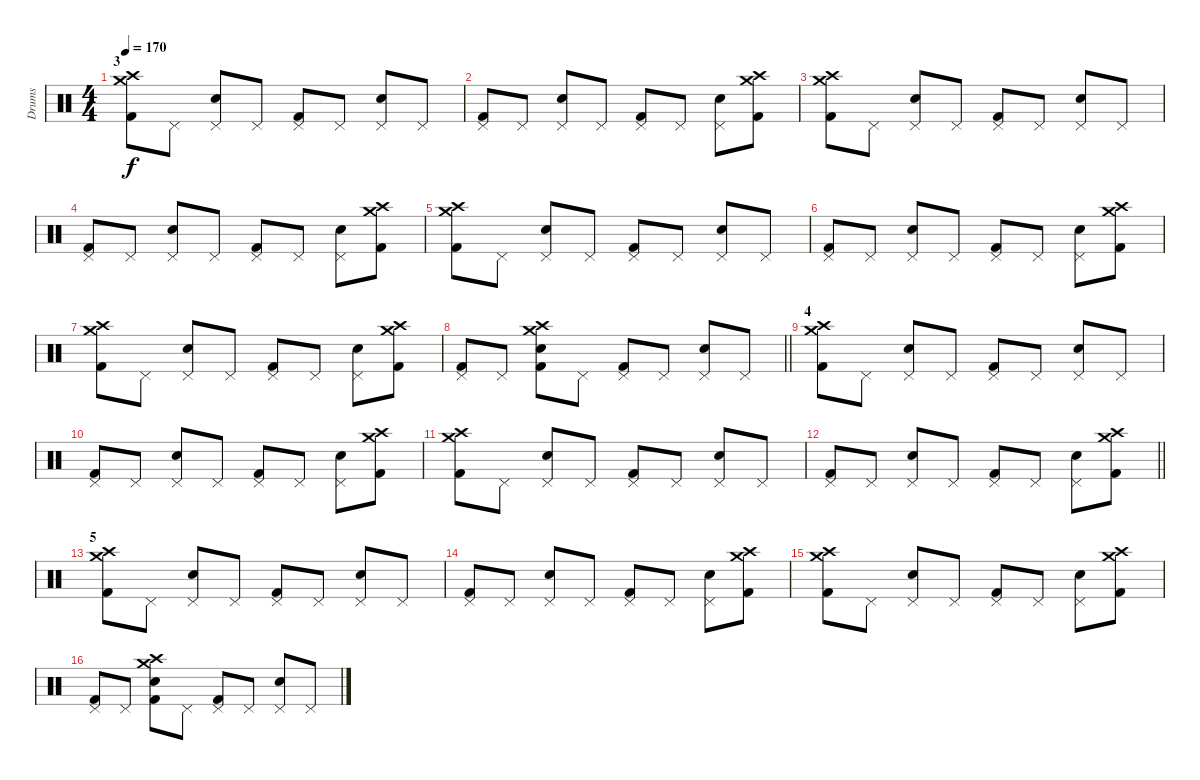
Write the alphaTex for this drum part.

\track ("Drums" "Drums") {instrument percussion}
\staff {score}
\articulation defaults
\ts (4 4)
\section ("" "3")
\tempo 170
\clef neutral
\ks c
("Crash medium (hit)" "Crash high (hit)" "Kick (hit) 2").8{dy f} "Pedal Hi-Hat (hit)".8 ("Pedal Hi-Hat (hit)" "Snare (hit) 2").8 "Pedal Hi-Hat (hit)".8 ("Pedal Hi-Hat (hit)" "Kick (hit) 2").8 "Pedal Hi-Hat (hit)".8 ("Pedal Hi-Hat (hit)" "Snare (hit) 2").8 "Pedal Hi-Hat (hit)".8 |
("Pedal Hi-Hat (hit)" "Kick (hit) 2").8 "Pedal Hi-Hat (hit)".8 ("Pedal Hi-Hat (hit)" "Snare (hit) 2").8 "Pedal Hi-Hat (hit)".8 ("Pedal Hi-Hat (hit)" "Kick (hit) 2").8 "Pedal Hi-Hat (hit)".8 ("Pedal Hi-Hat (hit)" "Snare (hit) 2").8 ("Crash medium (hit)" "Crash high (hit)" "Kick (hit) 2").8 |
("Crash medium (hit)" "Crash high (hit)" "Kick (hit) 2").8 "Pedal Hi-Hat (hit)".8 ("Pedal Hi-Hat (hit)" "Snare (hit) 2").8 "Pedal Hi-Hat (hit)".8 ("Pedal Hi-Hat (hit)" "Kick (hit) 2").8 "Pedal Hi-Hat (hit)".8 ("Pedal Hi-Hat (hit)" "Snare (hit) 2").8 "Pedal Hi-Hat (hit)".8 |
("Pedal Hi-Hat (hit)" "Kick (hit) 2").8 "Pedal Hi-Hat (hit)".8 ("Pedal Hi-Hat (hit)" "Snare (hit) 2").8 "Pedal Hi-Hat (hit)".8 ("Pedal Hi-Hat (hit)" "Kick (hit) 2").8 "Pedal Hi-Hat (hit)".8 ("Pedal Hi-Hat (hit)" "Snare (hit) 2").8 ("Crash medium (hit)" "Crash high (hit)" "Kick (hit) 2").8 |
("Crash medium (hit)" "Crash high (hit)" "Kick (hit) 2").8 "Pedal Hi-Hat (hit)".8 ("Pedal Hi-Hat (hit)" "Snare (hit) 2").8 "Pedal Hi-Hat (hit)".8 ("Pedal Hi-Hat (hit)" "Kick (hit) 2").8 "Pedal Hi-Hat (hit)".8 ("Pedal Hi-Hat (hit)" "Snare (hit) 2").8 "Pedal Hi-Hat (hit)".8 |
("Pedal Hi-Hat (hit)" "Kick (hit) 2").8 "Pedal Hi-Hat (hit)".8 ("Pedal Hi-Hat (hit)" "Snare (hit) 2").8 "Pedal Hi-Hat (hit)".8 ("Pedal Hi-Hat (hit)" "Kick (hit) 2").8 "Pedal Hi-Hat (hit)".8 ("Pedal Hi-Hat (hit)" "Snare (hit) 2").8 ("Crash medium (hit)" "Crash high (hit)" "Kick (hit) 2").8 |
("Crash medium (hit)" "Crash high (hit)" "Kick (hit) 2").8 "Pedal Hi-Hat (hit)".8 ("Pedal Hi-Hat (hit)" "Snare (hit) 2").8 "Pedal Hi-Hat (hit)".8 ("Pedal Hi-Hat (hit)" "Kick (hit) 2").8 "Pedal Hi-Hat (hit)".8 ("Pedal Hi-Hat (hit)" "Snare (hit) 2").8 ("Crash medium (hit)" "Crash high (hit)" "Kick (hit) 2").8 |
\barLineRight lightlight
("Pedal Hi-Hat (hit)" "Kick (hit) 2").8 "Pedal Hi-Hat (hit)".8 ("Crash medium (hit)" "Crash high (hit)" "Snare (hit) 2" "Kick (hit) 2").8 "Pedal Hi-Hat (hit)".8 ("Pedal Hi-Hat (hit)" "Kick (hit) 2").8 "Pedal Hi-Hat (hit)".8 ("Pedal Hi-Hat (hit)" "Snare (hit) 2").8 "Pedal Hi-Hat (hit)".8 |
\section ("" "4")
("Crash medium (hit)" "Crash high (hit)" "Kick (hit) 2").8 "Pedal Hi-Hat (hit)".8 ("Pedal Hi-Hat (hit)" "Snare (hit) 2").8 "Pedal Hi-Hat (hit)".8 ("Pedal Hi-Hat (hit)" "Kick (hit) 2").8 "Pedal Hi-Hat (hit)".8 ("Pedal Hi-Hat (hit)" "Snare (hit) 2").8 "Pedal Hi-Hat (hit)".8 |
("Pedal Hi-Hat (hit)" "Kick (hit) 2").8 "Pedal Hi-Hat (hit)".8 ("Pedal Hi-Hat (hit)" "Snare (hit) 2").8 "Pedal Hi-Hat (hit)".8 ("Pedal Hi-Hat (hit)" "Kick (hit) 2").8 "Pedal Hi-Hat (hit)".8 ("Pedal Hi-Hat (hit)" "Snare (hit) 2").8 ("Crash medium (hit)" "Crash high (hit)" "Kick (hit) 2").8 |
("Crash medium (hit)" "Crash high (hit)" "Kick (hit) 2").8 "Pedal Hi-Hat (hit)".8 ("Pedal Hi-Hat (hit)" "Snare (hit) 2").8 "Pedal Hi-Hat (hit)".8 ("Pedal Hi-Hat (hit)" "Kick (hit) 2").8 "Pedal Hi-Hat (hit)".8 ("Pedal Hi-Hat (hit)" "Snare (hit) 2").8 "Pedal Hi-Hat (hit)".8 |
\barLineRight lightlight
("Pedal Hi-Hat (hit)" "Kick (hit) 2").8 "Pedal Hi-Hat (hit)".8 ("Pedal Hi-Hat (hit)" "Snare (hit) 2").8 "Pedal Hi-Hat (hit)".8 ("Pedal Hi-Hat (hit)" "Kick (hit) 2").8 "Pedal Hi-Hat (hit)".8 ("Pedal Hi-Hat (hit)" "Snare (hit) 2").8 ("Crash medium (hit)" "Crash high (hit)" "Kick (hit) 2").8 |
\section ("" "5")
("Crash medium (hit)" "Crash high (hit)" "Kick (hit) 2").8 "Pedal Hi-Hat (hit)".8 ("Pedal Hi-Hat (hit)" "Snare (hit) 2").8 "Pedal Hi-Hat (hit)".8 ("Pedal Hi-Hat (hit)" "Kick (hit) 2").8 "Pedal Hi-Hat (hit)".8 ("Pedal Hi-Hat (hit)" "Snare (hit) 2").8 "Pedal Hi-Hat (hit)".8 |
("Pedal Hi-Hat (hit)" "Kick (hit) 2").8 "Pedal Hi-Hat (hit)".8 ("Pedal Hi-Hat (hit)" "Snare (hit) 2").8 "Pedal Hi-Hat (hit)".8 ("Pedal Hi-Hat (hit)" "Kick (hit) 2").8 "Pedal Hi-Hat (hit)".8 ("Pedal Hi-Hat (hit)" "Snare (hit) 2").8 ("Crash medium (hit)" "Crash high (hit)" "Kick (hit) 2").8 |
("Crash medium (hit)" "Crash high (hit)" "Kick (hit) 2").8 "Pedal Hi-Hat (hit)".8 ("Pedal Hi-Hat (hit)" "Snare (hit) 2").8 "Pedal Hi-Hat (hit)".8 ("Pedal Hi-Hat (hit)" "Kick (hit) 2").8 "Pedal Hi-Hat (hit)".8 ("Pedal Hi-Hat (hit)" "Snare (hit) 2").8 ("Crash medium (hit)" "Crash high (hit)" "Kick (hit) 2").8 |
("Pedal Hi-Hat (hit)" "Kick (hit) 2").8 "Pedal Hi-Hat (hit)".8 ("Crash medium (hit)" "Crash high (hit)" "Snare (hit) 2" "Kick (hit) 2").8 "Pedal Hi-Hat (hit)".8 ("Pedal Hi-Hat (hit)" "Kick (hit) 2").8 "Pedal Hi-Hat (hit)".8 ("Pedal Hi-Hat (hit)" "Snare (hit) 2").8 "Pedal Hi-Hat (hit)".8
